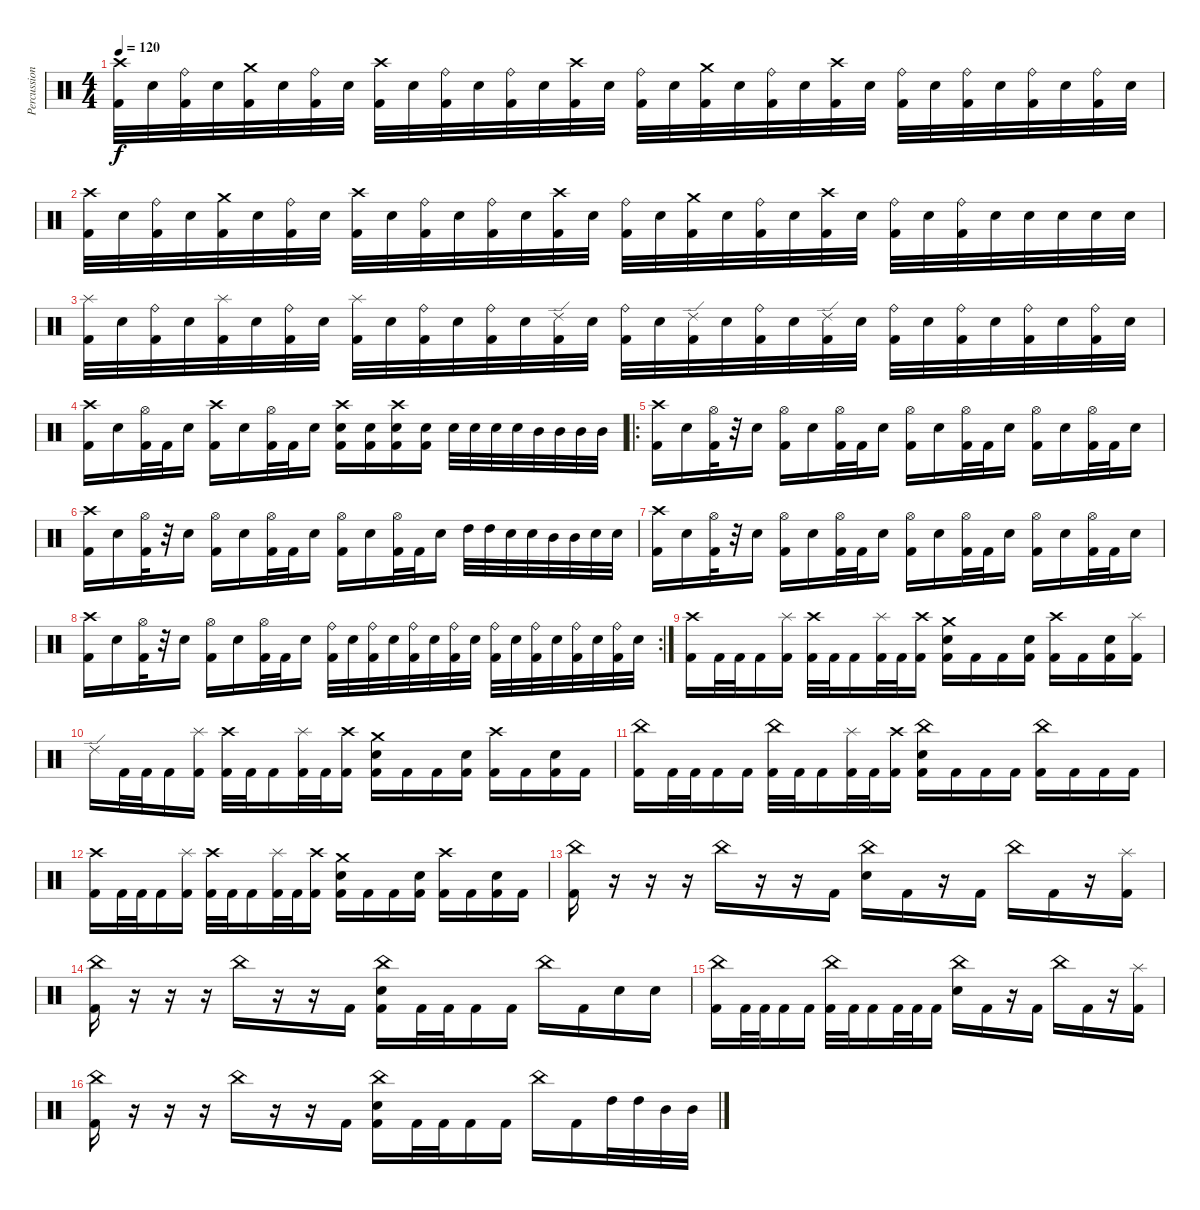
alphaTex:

\track ("Percussion" "Percussion") {instrument percussion}
\staff {score}
\articulation defaults
\ts (4 4)
\tempo 120
\clef neutral
\ks c
("Crash high (hit)" "Kick (hit) 2").32{dy f} "Electric Snare (hit)".32 ("Ride (bell)" "Kick (hit) 2").32 "Electric Snare (hit)".32 ("Crash medium (hit)" "Kick (hit) 2").32 "Electric Snare (hit)".32 ("Ride (bell)" "Kick (hit) 2").32 "Electric Snare (hit)".32 ("Crash high (hit)" "Kick (hit) 2").32 "Electric Snare (hit)".32 ("Ride (bell)" "Kick (hit) 2").32 "Electric Snare (hit)".32 ("Ride (bell)" "Kick (hit) 2").32 "Electric Snare (hit)".32 ("Crash high (hit)" "Kick (hit) 2").32 "Electric Snare (hit)".32 ("Ride (bell)" "Kick (hit) 2").32 "Electric Snare (hit)".32 ("Crash medium (hit)" "Kick (hit) 2").32 "Electric Snare (hit)".32 ("Ride (bell)" "Kick (hit) 2").32 "Electric Snare (hit)".32 ("Crash high (hit)" "Kick (hit) 2").32 "Electric Snare (hit)".32 ("Ride (bell)" "Kick (hit) 2").32 "Electric Snare (hit)".32 ("Ride (bell)" "Kick (hit) 2").32 "Electric Snare (hit)".32 ("Ride (bell)" "Kick (hit) 2").32 "Electric Snare (hit)".32 ("Ride (bell)" "Kick (hit) 2").32 "Electric Snare (hit)".32 |
("Crash high (hit)" "Kick (hit) 2").32 "Electric Snare (hit)".32 ("Ride (bell)" "Kick (hit) 2").32 "Electric Snare (hit)".32 ("Crash medium (hit)" "Kick (hit) 2").32 "Electric Snare (hit)".32 ("Ride (bell)" "Kick (hit) 2").32 "Electric Snare (hit)".32 ("Crash high (hit)" "Kick (hit) 2").32 "Electric Snare (hit)".32 ("Ride (bell)" "Kick (hit) 2").32 "Electric Snare (hit)".32 ("Ride (bell)" "Kick (hit) 2").32 "Electric Snare (hit)".32 ("Crash high (hit)" "Kick (hit) 2").32 "Electric Snare (hit)".32 ("Ride (bell)" "Kick (hit) 2").32 "Electric Snare (hit)".32 ("Crash medium (hit)" "Kick (hit) 2").32 "Electric Snare (hit)".32 ("Ride (bell)" "Kick (hit) 2").32 "Electric Snare (hit)".32 ("Crash high (hit)" "Kick (hit) 2").32 "Electric Snare (hit)".32 ("Ride (bell)" "Kick (hit) 2").32 "Electric Snare (hit)".32 ("Ride (bell)" "Kick (hit) 2").32 "Electric Snare (hit)".32 "Electric Snare (hit)".32 "Electric Snare (hit)".32 "Electric Snare (hit)".32 "Electric Snare (hit)".32 |
("Splash (hit)" "Kick (hit) 2").32 "Electric Snare (hit)".32 ("Ride (bell)" "Kick (hit) 2").32 "Electric Snare (hit)".32 ("Splash (hit)" "Kick (hit) 2").32 "Electric Snare (hit)".32 ("Ride (bell)" "Kick (hit) 2").32 "Electric Snare (hit)".32 ("Splash (hit)" "Kick (hit) 2").32 "Electric Snare (hit)".32 ("Ride (bell)" "Kick (hit) 2").32 "Electric Snare (hit)".32 ("Ride (bell)" "Kick (hit) 2").32 "Electric Snare (hit)".32 ("Ride (edge) 2" "Kick (hit) 2").32 "Electric Snare (hit)".32 ("Ride (bell)" "Kick (hit) 2").32 "Electric Snare (hit)".32 ("Ride (edge) 2" "Kick (hit) 2").32 "Electric Snare (hit)".32 ("Ride (bell)" "Kick (hit) 2").32 "Electric Snare (hit)".32 ("Ride (edge) 2" "Kick (hit) 2").32 "Electric Snare (hit)".32 ("Ride (bell)" "Kick (hit) 2").32 "Electric Snare (hit)".32 ("Ride (bell)" "Kick (hit) 2").32 "Electric Snare (hit)".32 ("Ride (bell)" "Kick (hit) 2").32 "Electric Snare (hit)".32 ("Ride (bell)" "Kick (hit) 2").32 "Electric Snare (hit)".32 |
("Crash high (hit)" "Kick (hit) 2").16 "Electric Snare (hit)".16 ("Hi-Hat (open)" "Kick (hit) 2").32 "Kick (hit) 2".32 "Electric Snare (hit)".16 ("Crash high (hit)" "Kick (hit) 2").16 "Electric Snare (hit)".16 ("Hi-Hat (open)" "Kick (hit) 2").32 "Kick (hit) 2".32 "Electric Snare (hit)".16 ("Crash high (hit)" "Electric Snare (hit)" "Kick (hit) 2").16 ("Electric Snare (hit)" "Kick (hit) 2").16 ("Crash high (hit)" "Electric Snare (hit)" "Kick (hit) 2").16 ("Electric Snare (hit)" "Kick (hit) 2").16 "Electric Snare (hit)".32 "Electric Snare (hit)".32 "Electric Snare (hit)".32 "Electric Snare (hit)".32 "Mid Tom (hit)".32 "Mid Tom (hit)".32 "Mid Tom (hit)".32 "Mid Tom (hit)".32 |
\ro
("Crash high (hit)" "Kick (hit) 2").16 "Electric Snare (hit)".16 ("Hi-Hat (open)" "Kick (hit) 2").32 r.32 "Electric Snare (hit)".16 ("Hi-Hat (open)" "Kick (hit) 2").16 "Electric Snare (hit)".16 ("Hi-Hat (open)" "Kick (hit) 2").32 "Kick (hit) 2".32 "Electric Snare (hit)".16 ("Hi-Hat (open)" "Kick (hit) 2").16 "Electric Snare (hit)".16 ("Hi-Hat (open)" "Kick (hit) 2").32 "Kick (hit) 2".32 "Electric Snare (hit)".16 ("Hi-Hat (open)" "Kick (hit) 2").16 "Electric Snare (hit)".16 ("Hi-Hat (open)" "Kick (hit) 2").32 "Kick (hit) 2".32 "Electric Snare (hit)".16 |
("Crash high (hit)" "Kick (hit) 2").16 "Electric Snare (hit)".16 ("Hi-Hat (open)" "Kick (hit) 2").32 r.32 "Electric Snare (hit)".16 ("Hi-Hat (open)" "Kick (hit) 2").16 "Electric Snare (hit)".16 ("Hi-Hat (open)" "Kick (hit) 2").32 "Kick (hit) 2".32 "Electric Snare (hit)".16 ("Hi-Hat (open)" "Kick (hit) 2").16 "Electric Snare (hit)".16 ("Hi-Hat (open)" "Kick (hit) 2").32 "Kick (hit) 2".32 "Electric Snare (hit)".16 "High Tom (hit)".32 "High Tom (hit)".32 "Electric Snare (hit)".32 "Electric Snare (hit)".32 "Mid Tom (hit)".32 "Mid Tom (hit)".32 "Electric Snare (hit)".32 "Electric Snare (hit)".32 |
("Crash high (hit)" "Kick (hit) 2").16 "Electric Snare (hit)".16 ("Hi-Hat (open)" "Kick (hit) 2").32 r.32 "Electric Snare (hit)".16 ("Hi-Hat (open)" "Kick (hit) 2").16 "Electric Snare (hit)".16 ("Hi-Hat (open)" "Kick (hit) 2").32 "Kick (hit) 2".32 "Electric Snare (hit)".16 ("Hi-Hat (open)" "Kick (hit) 2").16 "Electric Snare (hit)".16 ("Hi-Hat (open)" "Kick (hit) 2").32 "Kick (hit) 2".32 "Electric Snare (hit)".16 ("Hi-Hat (open)" "Kick (hit) 2").16 "Electric Snare (hit)".16 ("Hi-Hat (open)" "Kick (hit) 2").32 "Kick (hit) 2".32 "Electric Snare (hit)".16 |
\rc 2
("Crash high (hit)" "Kick (hit) 2").16 "Electric Snare (hit)".16 ("Hi-Hat (open)" "Kick (hit) 2").32 r.32 "Electric Snare (hit)".16 ("Hi-Hat (open)" "Kick (hit) 2").16 "Electric Snare (hit)".16 ("Hi-Hat (open)" "Kick (hit) 2").32 "Kick (hit) 2".32 "Electric Snare (hit)".16 ("Ride (bell)" "Kick (hit) 2").32 "Electric Snare (hit)".32 ("Ride (bell)" "Kick (hit) 2").32 "Electric Snare (hit)".32 ("Ride (bell)" "Kick (hit) 2").32 "Electric Snare (hit)".32 ("Ride (bell)" "Kick (hit) 2").32 "Electric Snare (hit)".32 ("Ride (bell)" "Kick (hit) 2").32 "Electric Snare (hit)".32 ("Ride (bell)" "Kick (hit) 2").32 "Electric Snare (hit)".32 ("Ride (bell)" "Kick (hit) 2").32 "Electric Snare (hit)".32 ("Ride (bell)" "Kick (hit) 2").32 "Electric Snare (hit)".32 |
("Crash high (hit)" "Kick (hit) 2").16 "Kick (hit) 2".32 "Kick (hit) 2".32 "Kick (hit) 2".16 ("Splash (hit)" "Kick (hit) 2").16 ("Crash high (hit)" "Kick (hit) 2").32 "Kick (hit) 2".32 "Kick (hit) 2".16 ("Splash (hit)" "Kick (hit) 2").32 "Kick (hit) 2".32 ("Crash high (hit)" "Kick (hit) 2").16 ("Crash medium (hit)" "Electric Snare (hit)" "Kick (hit) 2").16 "Kick (hit) 2".16 "Kick (hit) 2".16 ("Electric Snare (hit)" "Kick (hit) 2").16 ("Crash high (hit)" "Kick (hit) 2").16 "Kick (hit) 2".16 ("Electric Snare (hit)" "Kick (hit) 2").16 ("Splash (hit)" "Kick (hit) 2").16 |
"Ride (edge) 2".16 "Kick (hit) 2".32{volume 13} "Kick (hit) 2".32 "Kick (hit) 2".16 ("Splash (hit)" "Kick (hit) 2").16 ("Crash high (hit)" "Kick (hit) 2").32 "Kick (hit) 2".32 "Kick (hit) 2".16 ("Splash (hit)" "Kick (hit) 2").32 "Kick (hit) 2".32 ("Crash high (hit)" "Kick (hit) 2").16 ("Crash medium (hit)" "Electric Snare (hit)" "Kick (hit) 2").16 "Kick (hit) 2".16 "Kick (hit) 2".16 ("Electric Snare (hit)" "Kick (hit) 2").16 ("Crash high (hit)" "Kick (hit) 2").16 "Kick (hit) 2".16 ("Electric Snare (hit)" "Kick (hit) 2").16 "Kick (hit) 2".16 |
("China (hit)" "Kick (hit) 2").16 "Kick (hit) 2".32 "Kick (hit) 2".32 "Kick (hit) 2".16 "Kick (hit) 2".16 ("China (hit)" "Kick (hit) 2").32 "Kick (hit) 2".32 "Kick (hit) 2".16 ("Splash (hit)" "Kick (hit) 2").32 "Kick (hit) 2".32 ("Crash high (hit)" "Kick (hit) 2").16 ("China (hit)" "Electric Snare (hit)" "Kick (hit) 2").16 "Kick (hit) 2".16 "Kick (hit) 2".16 "Kick (hit) 2".16 ("China (hit)" "Kick (hit) 2").16 "Kick (hit) 2".16 "Kick (hit) 2".16 "Kick (hit) 2".16 |
("Crash high (hit)" "Kick (hit) 2").16 "Kick (hit) 2".32 "Kick (hit) 2".32 "Kick (hit) 2".16 ("Splash (hit)" "Kick (hit) 2").16 ("Crash high (hit)" "Kick (hit) 2").32 "Kick (hit) 2".32 "Kick (hit) 2".16 ("Splash (hit)" "Kick (hit) 2").32 "Kick (hit) 2".32 ("Crash high (hit)" "Kick (hit) 2").16 ("Crash medium (hit)" "Electric Snare (hit)" "Kick (hit) 2").16 "Kick (hit) 2".16 "Kick (hit) 2".16 ("Electric Snare (hit)" "Kick (hit) 2").16 ("Crash high (hit)" "Kick (hit) 2").16 "Kick (hit) 2".16 ("Electric Snare (hit)" "Kick (hit) 2").16 "Kick (hit) 2".16 |
("China (hit)" "Kick (hit) 2").16 r.16 r.16 r.16 "China (hit)".16 r.16 r.16 "Kick (hit) 2".16 ("China (hit)" "Electric Snare (hit)").16 "Kick (hit) 2".16 r.16 "Kick (hit) 2".16 "China (hit)".16 "Kick (hit) 2".16 r.16 ("Splash (hit)" "Kick (hit) 2").16 |
("China (hit)" "Kick (hit) 2").16 r.16 r.16 r.16 "China (hit)".16 r.16 r.16 "Kick (hit) 2".16 ("China (hit)" "Electric Snare (hit)" "Kick (hit) 2").16 "Kick (hit) 2".32 "Kick (hit) 2".32 "Kick (hit) 2".16 "Kick (hit) 2".16 "China (hit)".16 "Kick (hit) 2".16 "Electric Snare (hit)".16 "Electric Snare (hit)".16 |
("China (hit)" "Kick (hit) 2").16 "Kick (hit) 2".32 "Kick (hit) 2".32 "Kick (hit) 2".16 "Kick (hit) 2".16 ("China (hit)" "Kick (hit) 2").32 "Kick (hit) 2".32 "Kick (hit) 2".16 "Kick (hit) 2".32 "Kick (hit) 2".32 "Kick (hit) 2".16 ("China (hit)" "Electric Snare (hit)").16 "Kick (hit) 2".16 r.16 "Kick (hit) 2".16 "China (hit)".16 "Kick (hit) 2".16 r.16 ("Splash (hit)" "Kick (hit) 2").16 |
("China (hit)" "Kick (hit) 2").16 r.16 r.16 r.16 "China (hit)".16 r.16 r.16 "Kick (hit) 2".16 ("China (hit)" "Electric Snare (hit)" "Kick (hit) 2").16 "Kick (hit) 2".32 "Kick (hit) 2".32 "Kick (hit) 2".16 "Kick (hit) 2".16 "China (hit)".16 "Kick (hit) 2".16 "High Tom (hit)".32 "High Tom (hit)".32 "Mid Tom (hit)".32 "Mid Tom (hit)".32
